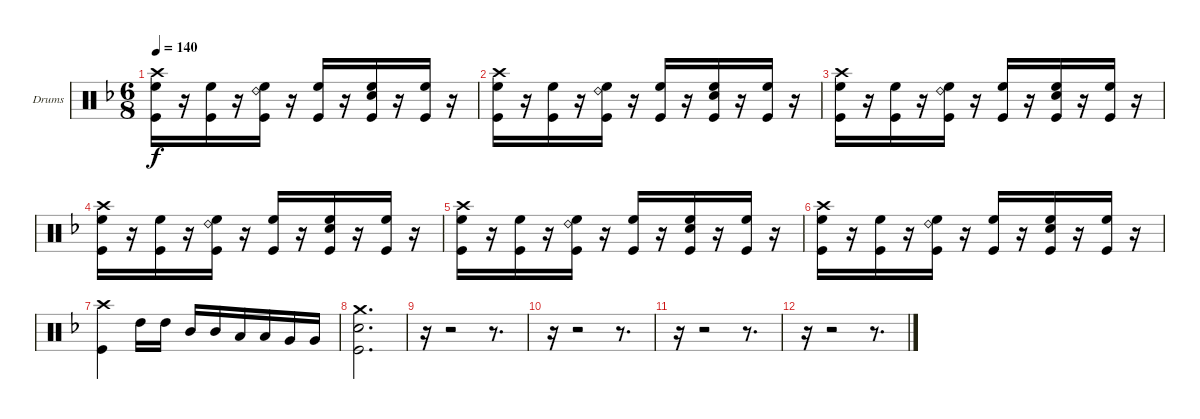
\bracketExtendMode groupsimilarinstruments
\firstSystemTrackNameOrientation horizontal
\otherSystemsTrackNameOrientation horizontal
\track ("Drumkit" "Drums") {instrument percussion}
\staff {score}
\articulation defaults
\ts (6 8)
\tempo 140
\clef neutral
\ks f
("Crash high (hit)" "High Floor Tom (hit)" "Kick (hit)").16{dy f} r.16 ("High Floor Tom (hit)" "Kick (hit)").16 r.16 ("Ride (bell) 2" "High Floor Tom (hit)" "Kick (hit)").16 r.16 ("High Floor Tom (hit)" "Kick (hit)").16 r.16 ("High Floor Tom (hit)" "Snare (hit) 2" "Kick (hit)").16 r.16 ("High Floor Tom (hit)" "Kick (hit)").16 r.16 |
("Crash high (hit)" "High Floor Tom (hit)" "Kick (hit)").16 r.16 ("High Floor Tom (hit)" "Kick (hit)").16 r.16 ("Ride (bell) 2" "High Floor Tom (hit)" "Kick (hit)").16 r.16 ("High Floor Tom (hit)" "Kick (hit)").16 r.16 ("High Floor Tom (hit)" "Snare (hit) 2" "Kick (hit)").16 r.16 ("High Floor Tom (hit)" "Kick (hit)").16 r.16 |
("Crash high (hit)" "High Floor Tom (hit)" "Kick (hit)").16 r.16 ("High Floor Tom (hit)" "Kick (hit)").16 r.16 ("Ride (bell) 2" "High Floor Tom (hit)" "Kick (hit)").16 r.16 ("High Floor Tom (hit)" "Kick (hit)").16 r.16 ("High Floor Tom (hit)" "Snare (hit) 2" "Kick (hit)").16 r.16 ("High Floor Tom (hit)" "Kick (hit)").16 r.16 |
("Crash high (hit)" "High Floor Tom (hit)" "Kick (hit)").16 r.16 ("High Floor Tom (hit)" "Kick (hit)").16 r.16 ("Ride (bell) 2" "High Floor Tom (hit)" "Kick (hit)").16 r.16 ("High Floor Tom (hit)" "Kick (hit)").16 r.16 ("High Floor Tom (hit)" "Snare (hit) 2" "Kick (hit)").16 r.16 ("High Floor Tom (hit)" "Kick (hit)").16 r.16 |
("Crash high (hit)" "High Floor Tom (hit)" "Kick (hit)").16 r.16 ("High Floor Tom (hit)" "Kick (hit)").16 r.16 ("Ride (bell) 2" "High Floor Tom (hit)" "Kick (hit)").16 r.16 ("High Floor Tom (hit)" "Kick (hit)").16 r.16 ("High Floor Tom (hit)" "Snare (hit) 2" "Kick (hit)").16 r.16 ("High Floor Tom (hit)" "Kick (hit)").16 r.16 |
("Crash high (hit)" "High Floor Tom (hit)" "Kick (hit)").16 r.16 ("High Floor Tom (hit)" "Kick (hit)").16 r.16 ("Ride (bell) 2" "High Floor Tom (hit)" "Kick (hit)").16 r.16 ("High Floor Tom (hit)" "Kick (hit)").16 r.16 ("High Floor Tom (hit)" "Snare (hit) 2" "Kick (hit)").16 r.16 ("High Floor Tom (hit)" "Kick (hit)").16 r.16 |
("Crash high (hit)" "Kick (hit)").4 "High Tom (hit)".16 "High Tom (hit)".16 "Mid Tom (hit)".16 "Mid Tom (hit)".16 "Low Tom (hit)".16 "Low Tom (hit)".16 "Very Low Tom (hit)".16 "Very Low Tom (hit)".16 |
("Crash medium (hit)" "Snare (hit) 2" "Kick (hit)").2{d} |
r.16 r.2 r.8{d} |
r.16 r.2 r.8{d} |
r.16 r.2 r.8{d} |
r.16 r.2 r.8{d}
